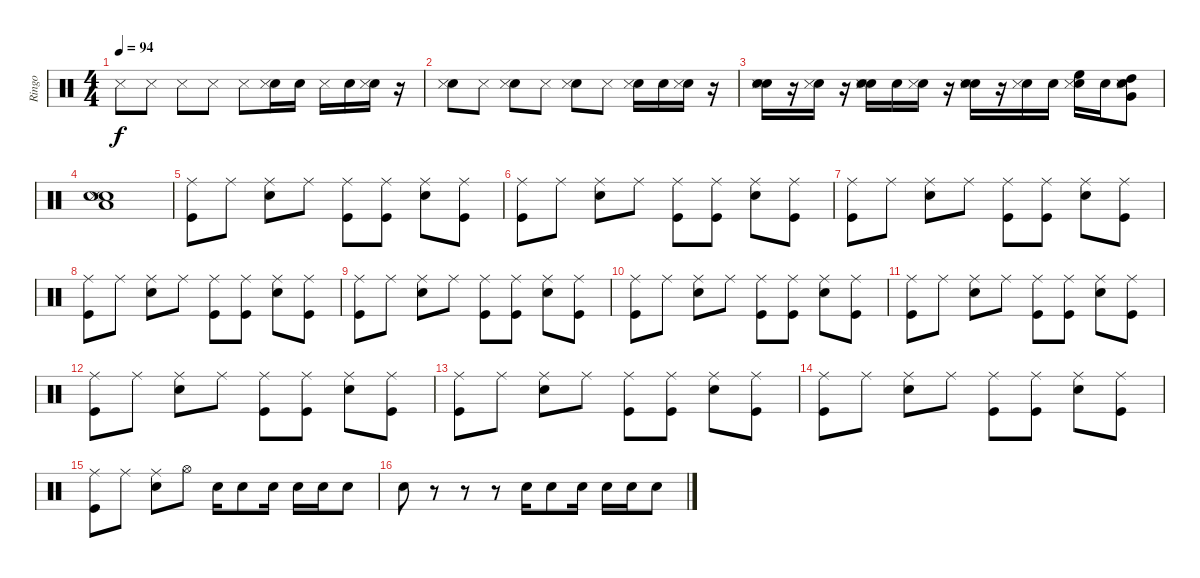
\track ("Ringo" "Ringo") {instrument percussion}
\staff {score}
\articulation defaults
\ts (4 4)
\tempo 94
\clef neutral
\ks c "Snare (side stick) 3".8{dy f} "Snare (side stick) 3".8 "Snare (side stick) 3".8 "Snare (side stick) 3".8 "Snare (side stick) 3".8
("Snare (hit) 2" "Snare (side stick) 3").16 "Snare (hit) 2".16 "Snare (side stick) 3".16 "Snare (hit) 2".16 ("Snare (hit) 2" "Snare (side stick) 3").16 r.16 |
("Hand Clap (hit)" "Snare (side stick) 3").8 "Snare (side stick) 3".8 ("Hand Clap (hit)" "Snare (side stick) 3").8 "Snare (side stick) 3".8 ("Hand Clap (hit)" "Snare (side stick) 3").8 "Snare (side stick) 3".8 ("Hand Clap (hit)" "Snare (side stick) 3").16 "Snare (hit) 2".16 ("Snare (hit) 2" "Snare (side stick) 3").16 r.16 |
("Snare (hit) 2" "Hand Clap (hit)" "Snare (side stick) 3").16 r.16 ("Snare (hit) 2" "Snare (side stick) 3").16 r.16 ("Snare (hit) 2" "Hand Clap (hit)" "Snare (side stick) 3").16 "Snare (hit) 2".16 ("Snare (hit) 2" "Snare (side stick) 3").16 r.16 ("Snare (hit) 2" "Hand Clap (hit)" "Snare (side stick) 3").16 r.16 ("Snare (hit) 2" "Snare (side stick) 3").16 "Snare (hit) 2".16 ("High Floor Tom (hit)" "Hand Clap (hit)" "Snare (side stick) 3").16 "Snare (hit) 2".16 ("High Tom (hit)" "Snare (hit) 2" "Very Low Tom (hit)" "Snare (side stick) 3").8 |
("Low Tom (hit)" "Snare (hit) 2" "Hand Clap (hit)" "Snare (side stick) 3").1 |
("Ride (middle)" "Kick (hit)").8 "Ride (middle)".8 ("Ride (middle)" "Snare (hit) 2").8 "Ride (middle)".8 ("Ride (middle)" "Kick (hit)").8 ("Ride (middle)" "Kick (hit)").8 ("Ride (middle)" "Snare (hit) 2").8 ("Ride (middle)" "Kick (hit)").8 |
("Ride (middle)" "Kick (hit)").8 "Ride (middle)".8 ("Ride (middle)" "Snare (hit) 2").8 "Ride (middle)".8 ("Ride (middle)" "Kick (hit)").8 ("Ride (middle)" "Kick (hit)").8 ("Ride (middle)" "Snare (hit) 2").8 ("Ride (middle)" "Kick (hit)").8 |
("Ride (middle)" "Kick (hit)").8 "Ride (middle)".8 ("Ride (middle)" "Snare (hit) 2").8 "Ride (middle)".8 ("Ride (middle)" "Kick (hit)").8 ("Ride (middle)" "Kick (hit)").8 ("Ride (middle)" "Snare (hit) 2").8 ("Ride (middle)" "Kick (hit)").8 |
("Ride (middle)" "Kick (hit)").8 "Ride (middle)".8 ("Ride (middle)" "Snare (hit) 2").8 "Ride (middle)".8 ("Ride (middle)" "Kick (hit)").8 ("Ride (middle)" "Kick (hit)").8 ("Ride (middle)" "Snare (hit) 2").8 ("Ride (middle)" "Kick (hit)").8 |
("Ride (middle)" "Kick (hit)").8 "Ride (middle)".8 ("Ride (middle)" "Snare (hit) 2").8 "Ride (middle)".8 ("Ride (middle)" "Kick (hit)").8 ("Ride (middle)" "Kick (hit)").8 ("Ride (middle)" "Snare (hit) 2").8 ("Ride (middle)" "Kick (hit)").8 |
("Ride (middle)" "Kick (hit)").8 "Ride (middle)".8 ("Ride (middle)" "Snare (hit) 2").8 "Ride (middle)".8 ("Ride (middle)" "Kick (hit)").8 ("Ride (middle)" "Kick (hit)").8 ("Ride (middle)" "Snare (hit) 2").8 ("Ride (middle)" "Kick (hit)").8 |
("Ride (middle)" "Kick (hit)").8 "Ride (middle)".8 ("Ride (middle)" "Snare (hit) 2").8 "Ride (middle)".8 ("Ride (middle)" "Kick (hit)").8 ("Ride (middle)" "Kick (hit)").8 ("Ride (middle)" "Snare (hit) 2").8 ("Ride (middle)" "Kick (hit)").8 |
("Ride (middle)" "Kick (hit)").8 "Ride (middle)".8 ("Ride (middle)" "Snare (hit) 2").8 "Ride (middle)".8 ("Ride (middle)" "Kick (hit)").8 ("Ride (middle)" "Kick (hit)").8 ("Ride (middle)" "Snare (hit) 2").8 ("Ride (middle)" "Kick (hit)").8 |
("Ride (middle)" "Kick (hit)").8 "Ride (middle)".8 ("Ride (middle)" "Snare (hit) 2").8 "Ride (middle)".8 ("Ride (middle)" "Kick (hit)").8 ("Ride (middle)" "Kick (hit)").8 ("Ride (middle)" "Snare (hit) 2").8 ("Ride (middle)" "Kick (hit)").8 |
("Ride (middle)" "Kick (hit)").8 "Ride (middle)".8 ("Ride (middle)" "Snare (hit) 2").8 "Ride (middle)".8 ("Ride (middle)" "Kick (hit)").8 ("Ride (middle)" "Kick (hit)").8 ("Ride (middle)" "Snare (hit) 2").8 ("Ride (middle)" "Kick (hit)").8 |
("Ride (middle)" "Kick (hit)").8 "Ride (middle)".8 ("Ride (middle)" "Snare (hit) 2").8 "Hi-Hat (open)".8 "Snare (hit) 2".16 "Snare (hit) 2".8 "Snare (hit) 2".16 "Snare (hit) 2".16 "Snare (hit) 2".16 "Snare (hit) 2".8 |
"Snare (hit) 2".8 r.8 r.8 r.8 "Snare (hit) 2".16 "Snare (hit) 2".8 "Snare (hit) 2".16 "Snare (hit) 2".16 "Snare (hit) 2".16 "Snare (hit) 2".8
